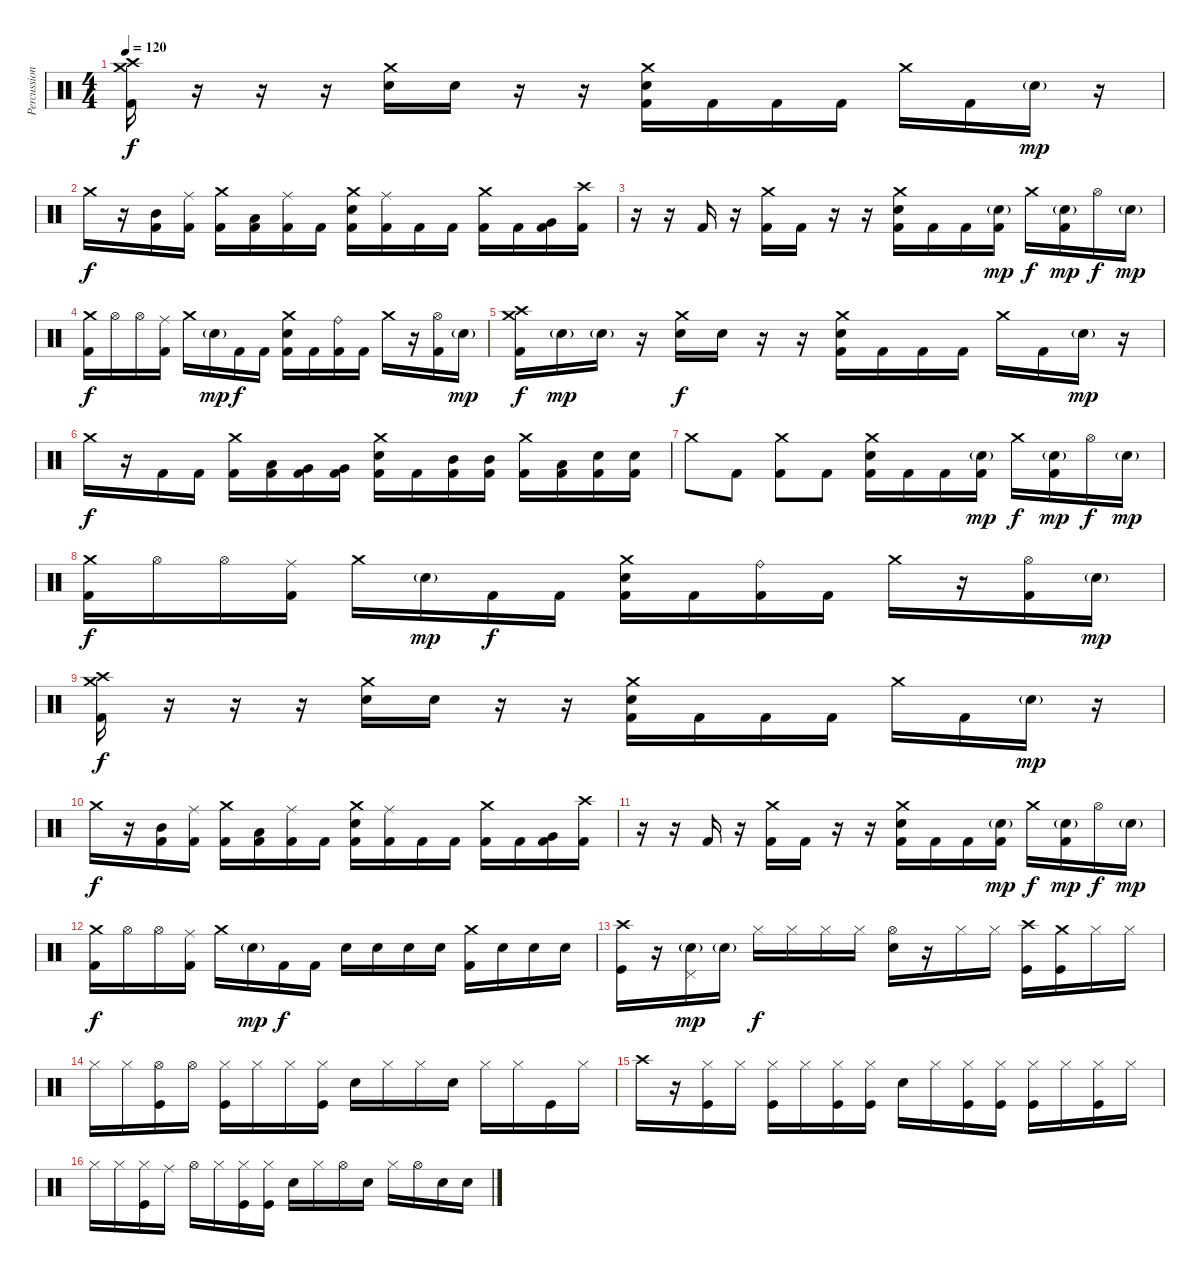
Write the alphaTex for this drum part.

\track ("Percussion" "Percussion") {instrument percussion}
\staff {score}
\articulation defaults
\ts (4 4)
\tempo 120
\clef neutral
\ks c
("Crash medium (hit)" "Crash high (hit)" "Kick (hit) 2").16{dy f} r.16 r.16 r.16 ("Crash medium (hit)" "Electric Snare (hit)").16 "Electric Snare (hit)".16 r.16 r.16 ("Crash medium (hit)" "Electric Snare (hit)" "Kick (hit) 2").16 "Kick (hit) 2".16 "Kick (hit) 2".16 "Kick (hit) 2".16 "Crash medium (hit)".16 "Kick (hit) 2".16 "Electric Snare (hit)"{g}.16{dy mp} r.16 |
"Crash medium (hit)".16{dy f} r.16 ("Mid Tom (hit)" "Kick (hit) 2").16 ("Ride (middle)" "Kick (hit) 2").16 ("Crash medium (hit)" "Kick (hit) 2").16 ("Low Tom (hit)" "Kick (hit) 2").16 ("Ride (middle)" "Kick (hit) 2").16 "Kick (hit) 2".16 ("Crash medium (hit)" "Electric Snare (hit)" "Kick (hit) 2").16 ("Ride (middle)" "Kick (hit) 2").16 "Kick (hit) 2".16 "Kick (hit) 2".16 ("Crash medium (hit)" "Kick (hit) 2").16 "Kick (hit) 2".16 ("Very Low Tom (hit)" "Kick (hit) 2").16 ("Crash high (hit)" "Kick (hit) 2").16 |
r.16 r.16 "Kick (hit) 2".16 r.16 ("Crash medium (hit)" "Kick (hit) 2").16 "Kick (hit) 2".16 r.16 r.16 ("Crash medium (hit)" "Electric Snare (hit)" "Kick (hit) 2").16 "Kick (hit) 2".16 "Kick (hit) 2".16 ("Electric Snare (hit)"{g} "Kick (hit) 2").16{dy mp} "Crash medium (hit)".16{dy f} ("Electric Snare (hit)"{g} "Kick (hit) 2").16{dy mp} "Hi-Hat (open)".16{dy f} "Electric Snare (hit)"{g}.16{dy mp} |
("Crash medium (hit)" "Kick (hit) 2").16{dy f} "Hi-Hat (open)".16 "Hi-Hat (open)".16 ("Ride (middle)" "Kick (hit) 2").16 "Crash medium (hit)".16 "Electric Snare (hit)"{g}.16{dy mp} "Kick (hit) 2".16{dy f} "Kick (hit) 2".16 ("Crash medium (hit)" "Electric Snare (hit)" "Kick (hit) 2").16 "Kick (hit) 2".16 ("Ride (bell)" "Kick (hit) 2").16 "Kick (hit) 2".16 "Crash medium (hit)".16 r.16 ("Hi-Hat (open)" "Kick (hit) 2").16 "Electric Snare (hit)"{g}.16{dy mp} |
("Crash medium (hit)" "Crash high (hit)" "Kick (hit) 2").16{dy f} "Electric Snare (hit)"{g}.16{dy mp} "Electric Snare (hit)"{g}.16 r.16 ("Crash medium (hit)" "Electric Snare (hit)").16{dy f} "Electric Snare (hit)".16 r.16 r.16 ("Crash medium (hit)" "Electric Snare (hit)" "Kick (hit) 2").16 "Kick (hit) 2".16 "Kick (hit) 2".16 "Kick (hit) 2".16 "Crash medium (hit)".16 "Kick (hit) 2".16 "Electric Snare (hit)"{g}.16{dy mp} r.16 |
"Crash medium (hit)".16{dy f} r.16 "Kick (hit) 2".16 "Kick (hit) 2".16 ("Crash medium (hit)" "Kick (hit) 2").16 ("Low Tom (hit)" "Kick (hit) 2").16 ("Very Low Tom (hit)" "Kick (hit) 2").16 ("Very Low Tom (hit)" "Kick (hit) 2").16 ("Crash medium (hit)" "Electric Snare (hit)" "Kick (hit) 2").16 "Kick (hit) 2".16 ("Mid Tom (hit)" "Kick (hit) 2").16 ("Mid Tom (hit)" "Kick (hit) 2").16 ("Crash medium (hit)" "Kick (hit) 2").16 ("Low Tom (hit)" "Kick (hit) 2").16 ("Electric Snare (hit)" "Kick (hit) 2").16 ("Electric Snare (hit)" "Kick (hit) 2").16 |
"Crash medium (hit)".8 "Kick (hit) 2".8 ("Crash medium (hit)" "Kick (hit) 2").8 "Kick (hit) 2".8 ("Crash medium (hit)" "Electric Snare (hit)" "Kick (hit) 2").16 "Kick (hit) 2".16 "Kick (hit) 2".16 ("Electric Snare (hit)"{g} "Kick (hit) 2").16{dy mp} "Crash medium (hit)".16{dy f} ("Electric Snare (hit)"{g} "Kick (hit) 2").16{dy mp} "Hi-Hat (open)".16{dy f} "Electric Snare (hit)"{g}.16{dy mp} |
("Crash medium (hit)" "Kick (hit) 2").16{dy f} "Hi-Hat (open)".16 "Hi-Hat (open)".16 ("Ride (middle)" "Kick (hit) 2").16 "Crash medium (hit)".16 "Electric Snare (hit)"{g}.16{dy mp} "Kick (hit) 2".16{dy f} "Kick (hit) 2".16 ("Crash medium (hit)" "Electric Snare (hit)" "Kick (hit) 2").16 "Kick (hit) 2".16 ("Ride (bell)" "Kick (hit) 2").16 "Kick (hit) 2".16 "Crash medium (hit)".16 r.16 ("Hi-Hat (open)" "Kick (hit) 2").16 "Electric Snare (hit)"{g}.16{dy mp} |
("Crash medium (hit)" "Crash high (hit)" "Kick (hit) 2").16{dy f} r.16 r.16 r.16 ("Crash medium (hit)" "Electric Snare (hit)").16 "Electric Snare (hit)".16 r.16 r.16 ("Crash medium (hit)" "Electric Snare (hit)" "Kick (hit) 2").16 "Kick (hit) 2".16 "Kick (hit) 2".16 "Kick (hit) 2".16 "Crash medium (hit)".16 "Kick (hit) 2".16 "Electric Snare (hit)"{g}.16{dy mp} r.16 |
"Crash medium (hit)".16{dy f} r.16 ("Mid Tom (hit)" "Kick (hit) 2").16 ("Ride (middle)" "Kick (hit) 2").16 ("Crash medium (hit)" "Kick (hit) 2").16 ("Low Tom (hit)" "Kick (hit) 2").16 ("Ride (middle)" "Kick (hit) 2").16 "Kick (hit) 2".16 ("Crash medium (hit)" "Electric Snare (hit)" "Kick (hit) 2").16 ("Ride (middle)" "Kick (hit) 2").16 "Kick (hit) 2".16 "Kick (hit) 2".16 ("Crash medium (hit)" "Kick (hit) 2").16 "Kick (hit) 2".16 ("Very Low Tom (hit)" "Kick (hit) 2").16 ("Crash high (hit)" "Kick (hit) 2").16 |
r.16 r.16 "Kick (hit) 2".16 r.16 ("Crash medium (hit)" "Kick (hit) 2").16 "Kick (hit) 2".16 r.16 r.16 ("Crash medium (hit)" "Electric Snare (hit)" "Kick (hit) 2").16 "Kick (hit) 2".16 "Kick (hit) 2".16 ("Electric Snare (hit)"{g} "Kick (hit) 2").16{dy mp} "Crash medium (hit)".16{dy f} ("Electric Snare (hit)"{g} "Kick (hit) 2").16{dy mp} "Hi-Hat (open)".16{dy f} "Electric Snare (hit)"{g}.16{dy mp} |
("Crash medium (hit)" "Kick (hit) 2").16{dy f} "Hi-Hat (open)".16 "Hi-Hat (open)".16 ("Ride (middle)" "Kick (hit) 2").16 "Crash medium (hit)".16 "Electric Snare (hit)"{g}.16{dy mp} "Kick (hit) 2".16{dy f} "Kick (hit) 2".16 "Electric Snare (hit)".16 "Electric Snare (hit)".16 "Electric Snare (hit)".16 "Electric Snare (hit)".16 ("Crash medium (hit)" "Kick (hit) 2").16 "Electric Snare (hit)".16 "Electric Snare (hit)".16 "Electric Snare (hit)".16 |
("Crash high (hit)" "Kick (hit)").16 r.16 ("Pedal Hi-Hat (hit)" "Electric Snare (hit)"{g}).16{dy mp} "Electric Snare (hit)"{g}.16 "Hi-Hat (closed)".16{dy f} "Hi-Hat (closed)".16 "Hi-Hat (closed)".16 "Hi-Hat (closed)".16 ("Hi-Hat (open)" "Electric Snare (hit)").16 r.16 "Hi-Hat (closed)".16 "Hi-Hat (closed)".16 ("Crash high (hit)" "Kick (hit)").16 ("Crash medium (hit)" "Kick (hit)").16 "Hi-Hat (closed)".16 "Hi-Hat (closed)".16 |
"Hi-Hat (closed)".16 "Hi-Hat (closed)".16 ("Hi-Hat (open)" "Kick (hit)").16 "Hi-Hat (open)".16 ("Hi-Hat (closed)" "Kick (hit)").16 "Hi-Hat (closed)".16 "Hi-Hat (closed)".16 ("Hi-Hat (closed)" "Kick (hit)").16 "Electric Snare (hit)".16 "Hi-Hat (closed)".16 "Hi-Hat (closed)".16 "Electric Snare (hit)".16 "Hi-Hat (closed)".16 "Hi-Hat (closed)".16 "Kick (hit)".16 "Hi-Hat (closed)".16 |
"Crash high (hit)".16 r.16 ("Hi-Hat (closed)" "Kick (hit)").16 "Hi-Hat (closed)".16 ("Hi-Hat (closed)" "Kick (hit)").16 "Hi-Hat (closed)".16 ("Hi-Hat (closed)" "Kick (hit)").16 ("Hi-Hat (closed)" "Kick (hit)").16 "Electric Snare (hit)".16 "Hi-Hat (closed)".16 ("Hi-Hat (closed)" "Kick (hit)").16 ("Hi-Hat (closed)" "Kick (hit)").16 ("Hi-Hat (closed)" "Kick (hit)").16 "Hi-Hat (closed)".16 ("Hi-Hat (closed)" "Kick (hit)").16 "Hi-Hat (closed)".16 |
"Hi-Hat (closed)".16 "Hi-Hat (closed)".16 ("Hi-Hat (closed)" "Kick (hit)").16 "Ride (middle)".16 "Hi-Hat (open)".16 "Hi-Hat (closed)".16 ("Hi-Hat (closed)" "Kick (hit)").16 ("Hi-Hat (closed)" "Kick (hit)").16 "Electric Snare (hit)".16 "Hi-Hat (closed)".16 "Hi-Hat (open)".16 "Electric Snare (hit)".16 "Hi-Hat (closed)".16 "Hi-Hat (open)".16 "Electric Snare (hit)".16 "Electric Snare (hit)".16
